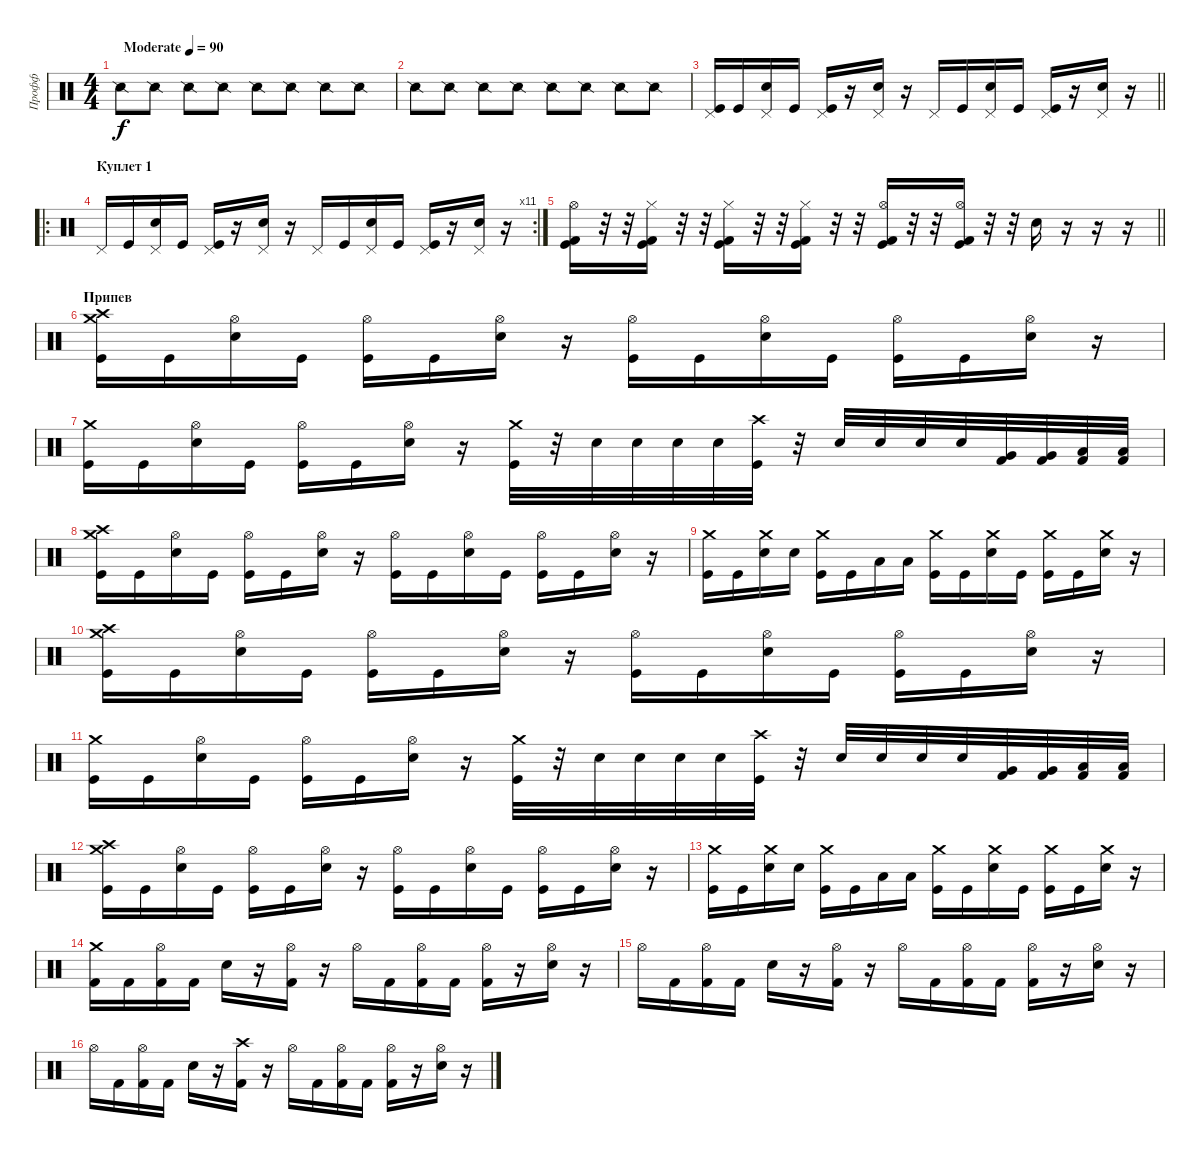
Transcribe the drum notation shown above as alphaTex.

\track ("Профф" "Профф") {instrument percussion}
\staff {score}
\articulation defaults
\ts (4 4)
\tempo (90 "Moderate")
\clef neutral
\ks c "Snare (side stick) 2".8{dy f volume 3} "Snare (side stick) 2".8{volume 10} "Snare (side stick) 2".8 "Snare (side stick) 2".8 "Snare (side stick) 2".8 "Snare (side stick) 2".8 "Snare (side stick) 2".8 "Snare (side stick) 2".8
|
"Snare (side stick) 2".8 "Snare (side stick) 2".8 "Snare (side stick) 2".8 "Snare (side stick) 2".8 "Snare (side stick) 2".8 "Snare (side stick) 2".8 "Snare (side stick) 2".8 "Snare (side stick) 2".8 |
\barLineRight lightlight
("Pedal Hi-Hat (hit)" "Kick (hit)").16 "Kick (hit)".16 ("Pedal Hi-Hat (hit)" "Electric Snare (hit)").16 "Kick (hit)".16 ("Pedal Hi-Hat (hit)" "Kick (hit)").16 r.16 ("Pedal Hi-Hat (hit)" "Electric Snare (hit)").16 r.16 "Pedal Hi-Hat (hit)".16 "Kick (hit)".16 ("Pedal Hi-Hat (hit)" "Electric Snare (hit)").16 "Kick (hit)".16 ("Pedal Hi-Hat (hit)" "Kick (hit)").16 r.16 ("Pedal Hi-Hat (hit)" "Electric Snare (hit)").16 r.16 |
\ro
\rc 11
\section ("" "Куплет 1")
"Pedal Hi-Hat (hit)".16 "Kick (hit)".16 ("Pedal Hi-Hat (hit)" "Electric Snare (hit)").16 "Kick (hit)".16 ("Pedal Hi-Hat (hit)" "Kick (hit)").16 r.16 ("Pedal Hi-Hat (hit)" "Electric Snare (hit)").16 r.16 "Pedal Hi-Hat (hit)".16 "Kick (hit)".16 ("Pedal Hi-Hat (hit)" "Electric Snare (hit)").16 "Kick (hit)".16 ("Pedal Hi-Hat (hit)" "Kick (hit)").16 r.16 ("Pedal Hi-Hat (hit)" "Electric Snare (hit)").16 r.16 |
\barLineRight lightlight
("Hi-Hat (open)" "Kick (hit)" "Kick (hit) 2").16{volume 7} r.32 r.32 ("Hi-Hat (closed)" "Kick (hit)" "Kick (hit) 2").16 r.32 r.32 ("Hi-Hat (closed)" "Kick (hit)" "Kick (hit) 2").16 r.32 r.32 ("Hi-Hat (closed)" "Kick (hit)" "Kick (hit) 2").16 r.32 r.32 ("Hi-Hat (open)" "Kick (hit)" "Kick (hit) 2").16 r.32 r.32 ("Hi-Hat (open)" "Kick (hit)" "Kick (hit) 2").16 r.32 r.32 "Electric Snare (hit)".16 r.16 r.16 r.16 |
\section ("" "Припев")
("Kick (hit)" "Crash high (hit)" "Crash medium (hit)").16 "Kick (hit)".16 ("Electric Snare (hit)" "Hi-Hat (open)").16 "Kick (hit)".16 ("Kick (hit)" "Hi-Hat (open)").16 "Kick (hit)".16 ("Electric Snare (hit)" "Hi-Hat (open)").16 r.16 ("Kick (hit)" "Hi-Hat (open)").16 "Kick (hit)".16 ("Electric Snare (hit)" "Hi-Hat (open)").16 "Kick (hit)".16 ("Kick (hit)" "Hi-Hat (open)").16 "Kick (hit)".16 ("Electric Snare (hit)" "Hi-Hat (open)").16 r.16 |
("Kick (hit)" "Crash medium (hit)").16 "Kick (hit)".16 ("Electric Snare (hit)" "Hi-Hat (open)").16 "Kick (hit)".16 ("Kick (hit)" "Hi-Hat (open)").16 "Kick (hit)".16 ("Electric Snare (hit)" "Hi-Hat (open)").16 r.16 ("Kick (hit)" "Crash medium (hit)").32 r.32 "Electric Snare (hit)".32 "Electric Snare (hit)".32 "Electric Snare (hit)".32 "Electric Snare (hit)".32 ("Kick (hit)" "Crash high (hit)").32 r.32 "Electric Snare (hit)".32 "Electric Snare (hit)".32 "Electric Snare (hit)".32 "Electric Snare (hit)".32 ("Very Low Tom (hit)" "Kick (hit) 2").32 ("Very Low Tom (hit)" "Kick (hit) 2").32 ("Low Floor Tom (hit)" "Kick (hit) 2").32 ("Low Floor Tom (hit)" "Kick (hit) 2").32 |
("Kick (hit)" "Crash high (hit)" "Crash medium (hit)").16 "Kick (hit)".16 ("Electric Snare (hit)" "Hi-Hat (open)").16 "Kick (hit)".16 ("Kick (hit)" "Hi-Hat (open)").16 "Kick (hit)".16 ("Electric Snare (hit)" "Hi-Hat (open)").16 r.16 ("Kick (hit)" "Hi-Hat (open)").16 "Kick (hit)".16 ("Electric Snare (hit)" "Hi-Hat (open)").16 "Kick (hit)".16 ("Kick (hit)" "Hi-Hat (open)").16 "Kick (hit)".16 ("Electric Snare (hit)" "Hi-Hat (open)").16 r.16 |
("Kick (hit)" "Crash medium (hit)").16 "Kick (hit)".16 ("Electric Snare (hit)" "Crash medium (hit)").16 "Electric Snare (hit)".16 ("Kick (hit)" "Crash medium (hit)").16 "Kick (hit)".16 "Low Tom (hit)".16 "Low Tom (hit)".16 ("Kick (hit)" "Crash medium (hit)").16 "Kick (hit)".16 ("Electric Snare (hit)" "Crash medium (hit)").16 "Kick (hit)".16 ("Kick (hit)" "Crash medium (hit)").16 "Kick (hit)".16 ("Electric Snare (hit)" "Crash medium (hit)").16 r.16 |
("Kick (hit)" "Crash high (hit)" "Crash medium (hit)").16 "Kick (hit)".16 ("Electric Snare (hit)" "Hi-Hat (open)").16 "Kick (hit)".16 ("Kick (hit)" "Hi-Hat (open)").16 "Kick (hit)".16 ("Electric Snare (hit)" "Hi-Hat (open)").16 r.16 ("Kick (hit)" "Hi-Hat (open)").16 "Kick (hit)".16 ("Electric Snare (hit)" "Hi-Hat (open)").16 "Kick (hit)".16 ("Kick (hit)" "Hi-Hat (open)").16 "Kick (hit)".16 ("Electric Snare (hit)" "Hi-Hat (open)").16 r.16 |
("Kick (hit)" "Crash medium (hit)").16 "Kick (hit)".16 ("Electric Snare (hit)" "Hi-Hat (open)").16 "Kick (hit)".16 ("Kick (hit)" "Hi-Hat (open)").16 "Kick (hit)".16 ("Electric Snare (hit)" "Hi-Hat (open)").16 r.16 ("Kick (hit)" "Crash medium (hit)").32 r.32 "Electric Snare (hit)".32 "Electric Snare (hit)".32 "Electric Snare (hit)".32 "Electric Snare (hit)".32 ("Kick (hit)" "Crash high (hit)").32 r.32 "Electric Snare (hit)".32 "Electric Snare (hit)".32 "Electric Snare (hit)".32 "Electric Snare (hit)".32 ("Very Low Tom (hit)" "Kick (hit) 2").32 ("Very Low Tom (hit)" "Kick (hit) 2").32 ("Low Floor Tom (hit)" "Kick (hit) 2").32 ("Low Floor Tom (hit)" "Kick (hit) 2").32 |
("Kick (hit)" "Crash high (hit)" "Crash medium (hit)").16 "Kick (hit)".16 ("Electric Snare (hit)" "Hi-Hat (open)").16 "Kick (hit)".16 ("Kick (hit)" "Hi-Hat (open)").16 "Kick (hit)".16 ("Electric Snare (hit)" "Hi-Hat (open)").16 r.16 ("Kick (hit)" "Hi-Hat (open)").16 "Kick (hit)".16 ("Electric Snare (hit)" "Hi-Hat (open)").16 "Kick (hit)".16 ("Kick (hit)" "Hi-Hat (open)").16 "Kick (hit)".16 ("Electric Snare (hit)" "Hi-Hat (open)").16 r.16 |
("Kick (hit)" "Crash medium (hit)").16 "Kick (hit)".16 ("Electric Snare (hit)" "Crash medium (hit)").16 "Electric Snare (hit)".16 ("Kick (hit)" "Crash medium (hit)").16 "Kick (hit)".16 "Low Tom (hit)".16 "Low Tom (hit)".16 ("Kick (hit)" "Crash medium (hit)").16 "Kick (hit)".16 ("Electric Snare (hit)" "Crash medium (hit)").16 "Kick (hit)".16 ("Kick (hit)" "Crash medium (hit)").16 "Kick (hit)".16 ("Electric Snare (hit)" "Crash medium (hit)").16 r.16 |
("Kick (hit) 2" "Crash medium (hit)").16 "Kick (hit) 2".16 ("Kick (hit) 2" "Hi-Hat (open)").16 "Kick (hit) 2".16 "Electric Snare (hit)".16 r.16 ("Kick (hit) 2" "Hi-Hat (open)").16 r.16 "Hi-Hat (open)".16 "Kick (hit) 2".16 ("Kick (hit) 2" "Hi-Hat (open)").16 "Kick (hit) 2".16 ("Kick (hit) 2" "Hi-Hat (open)").16 r.16 ("Electric Snare (hit)" "Hi-Hat (open)").16 r.16 |
"Hi-Hat (open)".16 "Kick (hit) 2".16 ("Kick (hit) 2" "Hi-Hat (open)").16 "Kick (hit) 2".16 "Electric Snare (hit)".16 r.16 ("Kick (hit) 2" "Hi-Hat (open)").16 r.16 "Hi-Hat (open)".16 "Kick (hit) 2".16 ("Kick (hit) 2" "Hi-Hat (open)").16 "Kick (hit) 2".16 ("Kick (hit) 2" "Hi-Hat (open)").16 r.16 ("Electric Snare (hit)" "Hi-Hat (open)").16 r.16 |
"Hi-Hat (open)".16 "Kick (hit) 2".16 ("Kick (hit) 2" "Hi-Hat (open)").16 "Kick (hit) 2".16 "Electric Snare (hit)".16 r.16 ("Kick (hit) 2" "Crash high (hit)").16 r.16 "Hi-Hat (open)".16 "Kick (hit) 2".16 ("Kick (hit) 2" "Hi-Hat (open)").16 "Kick (hit) 2".16 ("Kick (hit) 2" "Hi-Hat (open)").16 r.16 ("Electric Snare (hit)" "Hi-Hat (open)").16 r.16
